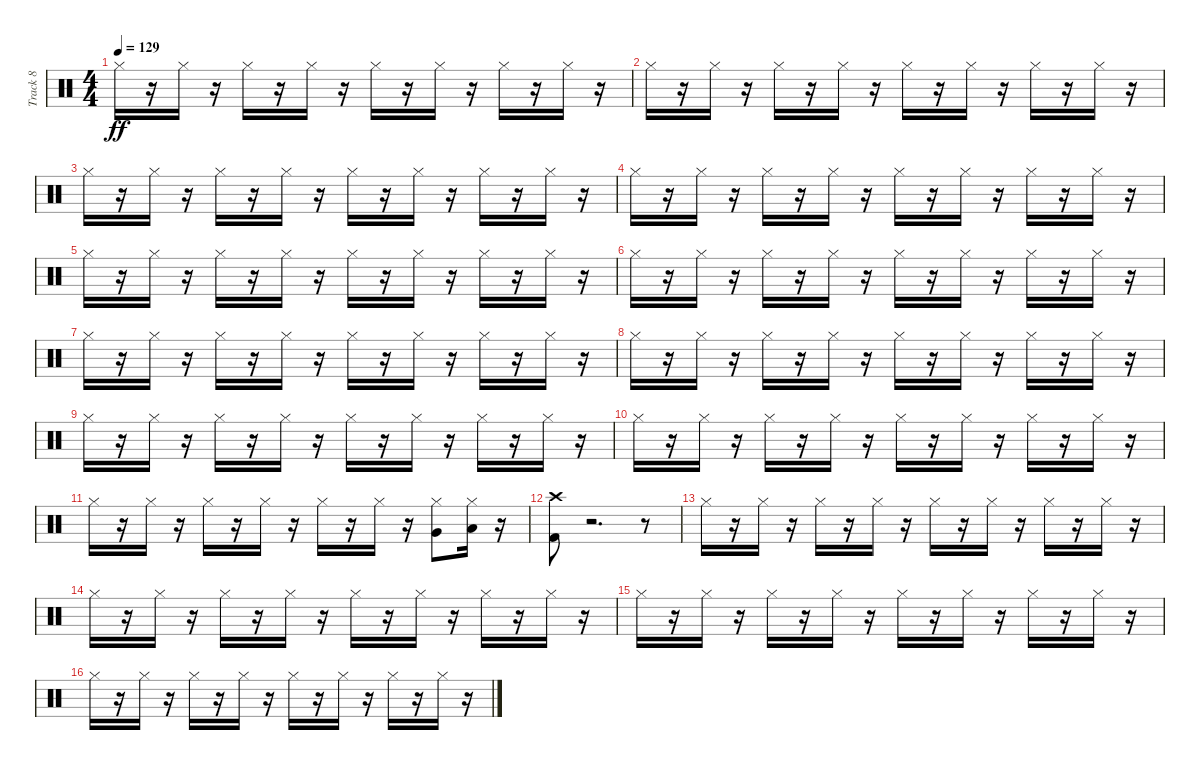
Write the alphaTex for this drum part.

\track ("Track 8" "Track 8") {instrument percussion}
\staff {score}
\articulation defaults
\ts (4 4)
\tempo 129
\clef neutral
\ks c "Hi-Hat (closed)".16{dy ff}
r.16 "Hi-Hat (closed)".16 r.16 "Hi-Hat (closed)".16 r.16 "Hi-Hat (closed)".16 r.16 "Hi-Hat (closed)".16 r.16 "Hi-Hat (closed)".16 r.16 "Hi-Hat (closed)".16 r.16 "Hi-Hat (closed)".16 r.16 |
"Hi-Hat (closed)".16 r.16 "Hi-Hat (closed)".16 r.16 "Hi-Hat (closed)".16 r.16 "Hi-Hat (closed)".16 r.16 "Hi-Hat (closed)".16 r.16 "Hi-Hat (closed)".16 r.16 "Hi-Hat (closed)".16 r.16 "Hi-Hat (closed)".16 r.16 |
"Hi-Hat (closed)".16 r.16 "Hi-Hat (closed)".16 r.16 "Hi-Hat (closed)".16 r.16 "Hi-Hat (closed)".16 r.16 "Hi-Hat (closed)".16 r.16 "Hi-Hat (closed)".16 r.16 "Hi-Hat (closed)".16 r.16 "Hi-Hat (closed)".16 r.16 |
"Hi-Hat (closed)".16 r.16 "Hi-Hat (closed)".16 r.16 "Hi-Hat (closed)".16 r.16 "Hi-Hat (closed)".16 r.16 "Hi-Hat (closed)".16 r.16 "Hi-Hat (closed)".16 r.16 "Hi-Hat (closed)".16 r.16 "Hi-Hat (closed)".16 r.16 |
"Hi-Hat (closed)".16 r.16 "Hi-Hat (closed)".16 r.16 "Hi-Hat (closed)".16 r.16 "Hi-Hat (closed)".16 r.16 "Hi-Hat (closed)".16 r.16 "Hi-Hat (closed)".16 r.16 "Hi-Hat (closed)".16 r.16 "Hi-Hat (closed)".16 r.16 |
"Hi-Hat (closed)".16 r.16 "Hi-Hat (closed)".16 r.16 "Hi-Hat (closed)".16 r.16 "Hi-Hat (closed)".16 r.16 "Hi-Hat (closed)".16 r.16 "Hi-Hat (closed)".16 r.16 "Hi-Hat (closed)".16 r.16 "Hi-Hat (closed)".16 r.16 |
"Hi-Hat (closed)".16 r.16 "Hi-Hat (closed)".16 r.16 "Hi-Hat (closed)".16 r.16 "Hi-Hat (closed)".16 r.16 "Hi-Hat (closed)".16 r.16 "Hi-Hat (closed)".16 r.16 "Hi-Hat (closed)".16 r.16 "Hi-Hat (closed)".16 r.16 |
"Hi-Hat (closed)".16 r.16 "Hi-Hat (closed)".16 r.16 "Hi-Hat (closed)".16 r.16 "Hi-Hat (closed)".16 r.16 "Hi-Hat (closed)".16 r.16 "Hi-Hat (closed)".16 r.16 "Hi-Hat (closed)".16 r.16 "Hi-Hat (closed)".16 r.16 |
"Hi-Hat (closed)".16 r.16 "Hi-Hat (closed)".16 r.16 "Hi-Hat (closed)".16 r.16 "Hi-Hat (closed)".16 r.16 "Hi-Hat (closed)".16 r.16 "Hi-Hat (closed)".16 r.16 "Hi-Hat (closed)".16 r.16 "Hi-Hat (closed)".16 r.16 |
"Hi-Hat (closed)".16 r.16 "Hi-Hat (closed)".16 r.16 "Hi-Hat (closed)".16 r.16 "Hi-Hat (closed)".16 r.16 "Hi-Hat (closed)".16 r.16 "Hi-Hat (closed)".16 r.16 "Hi-Hat (closed)".16 r.16 "Hi-Hat (closed)".16 r.16 |
"Hi-Hat (closed)".16 r.16 "Hi-Hat (closed)".16 r.16 "Hi-Hat (closed)".16 r.16 "Hi-Hat (closed)".16 r.16 "Hi-Hat (closed)".16 r.16 "Hi-Hat (closed)".16 r.16 ("Hi-Hat (closed)" "Very Low Tom (hit)").8 ("Hi-Hat (closed)" "Low Floor Tom (hit)").16 r.16 |
("Kick (hit) 2" "Crash high (hit)").8 r.2{d} r.8 |
"Hi-Hat (closed)".16 r.16 "Hi-Hat (closed)".16 r.16 "Hi-Hat (closed)".16 r.16 "Hi-Hat (closed)".16 r.16 "Hi-Hat (closed)".16 r.16 "Hi-Hat (closed)".16 r.16 "Hi-Hat (closed)".16 r.16 "Hi-Hat (closed)".16 r.16 |
"Hi-Hat (closed)".16 r.16 "Hi-Hat (closed)".16 r.16 "Hi-Hat (closed)".16 r.16 "Hi-Hat (closed)".16 r.16 "Hi-Hat (closed)".16 r.16 "Hi-Hat (closed)".16 r.16 "Hi-Hat (closed)".16 r.16 "Hi-Hat (closed)".16 r.16 |
"Hi-Hat (closed)".16 r.16 "Hi-Hat (closed)".16 r.16 "Hi-Hat (closed)".16 r.16 "Hi-Hat (closed)".16 r.16 "Hi-Hat (closed)".16 r.16 "Hi-Hat (closed)".16 r.16 "Hi-Hat (closed)".16 r.16 "Hi-Hat (closed)".16 r.16 |
"Hi-Hat (closed)".16 r.16 "Hi-Hat (closed)".16 r.16 "Hi-Hat (closed)".16 r.16 "Hi-Hat (closed)".16 r.16 "Hi-Hat (closed)".16 r.16 "Hi-Hat (closed)".16 r.16 "Hi-Hat (closed)".16 r.16 "Hi-Hat (closed)".16 r.16
